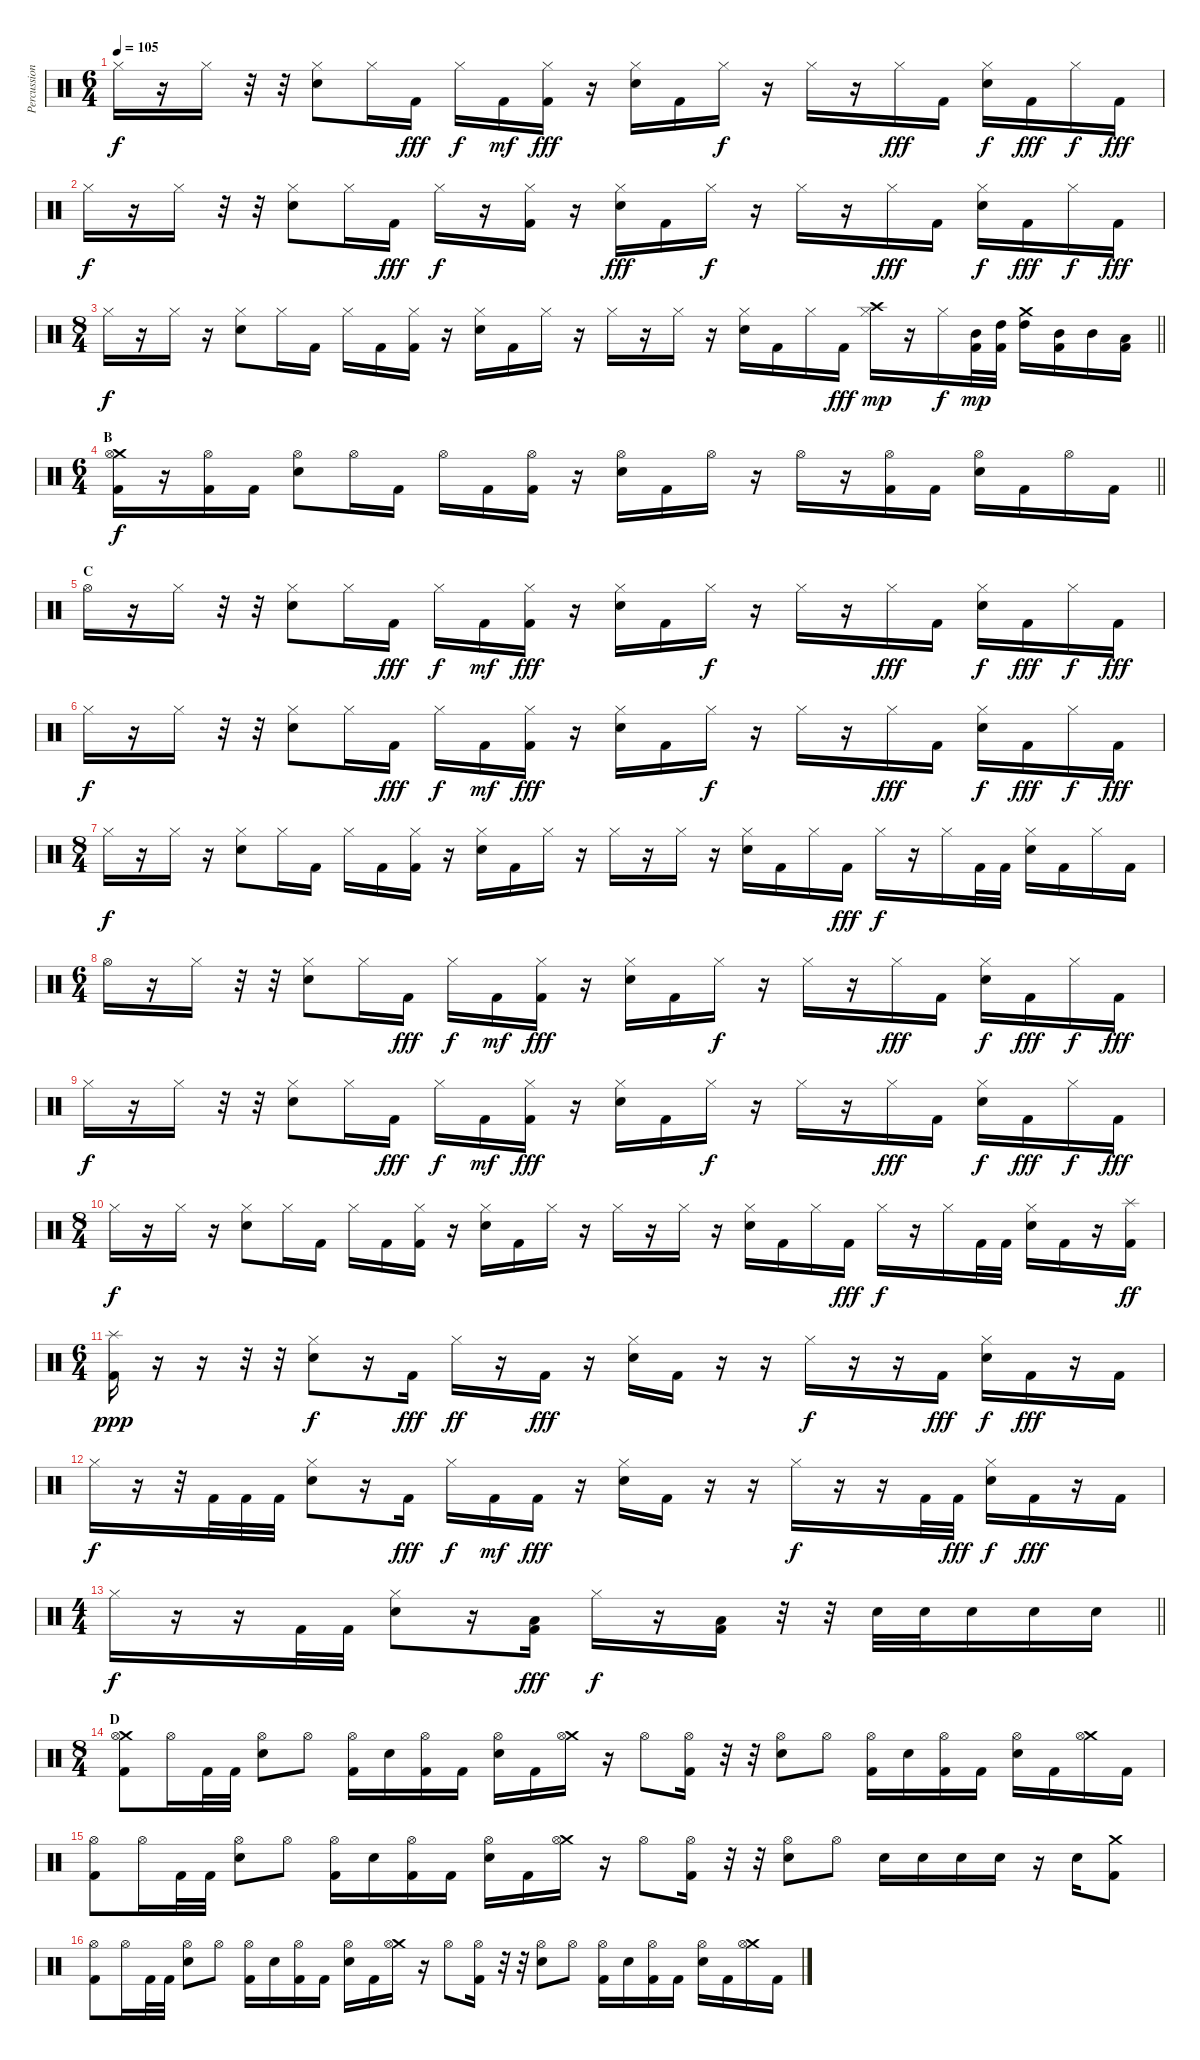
\track ("Percussions" "Percussion") {instrument percussion}
\staff {score}
\articulation defaults
\ts (6 4)
\tempo 105
\clef neutral
\ks c "Hi-Hat (closed)".16{dy f}
r.16 "Hi-Hat (closed)".16 r.32 r.32 ("Hi-Hat (closed)" "Snare (hit) 2").8 "Hi-Hat (closed)".16 "Kick (hit) 2".16{dy fff} "Hi-Hat (closed)".16{dy f} "Kick (hit) 2".16{dy mf} ("Hi-Hat (closed)" "Kick (hit) 2").16{dy fff} r.16 ("Hi-Hat (closed)" "Snare (hit) 2").16 "Kick (hit) 2".16 "Hi-Hat (closed)".16{dy f} r.16 "Hi-Hat (closed)".16 r.16 "Hi-Hat (closed)".16{dy fff} "Kick (hit) 2".16 ("Hi-Hat (closed)" "Snare (hit) 2").16{dy f} "Kick (hit) 2".16{dy fff} "Hi-Hat (closed)".16{dy f} "Kick (hit) 2".16{dy fff} |
"Hi-Hat (closed)".16{dy f} r.16 "Hi-Hat (closed)".16 r.32 r.32 ("Hi-Hat (closed)" "Snare (hit) 2").8 "Hi-Hat (closed)".16 "Kick (hit) 2".16{dy fff} "Hi-Hat (closed)".16{dy f} r.16 ("Hi-Hat (closed)" "Kick (hit) 2").16 r.16 ("Hi-Hat (closed)" "Snare (hit) 2").16{dy fff} "Kick (hit) 2".16 "Hi-Hat (closed)".16{dy f} r.16 "Hi-Hat (closed)".16 r.16 "Hi-Hat (closed)".16{dy fff} "Kick (hit) 2".16 ("Hi-Hat (closed)" "Snare (hit) 2").16{dy f} "Kick (hit) 2".16{dy fff} "Hi-Hat (closed)".16{dy f} "Kick (hit) 2".16{dy fff} |
\ts (8 4)
\barLineRight lightlight "Hi-Hat (closed)".16{dy f}
r.16 "Hi-Hat (closed)".16 r.16 ("Hi-Hat (closed)" "Snare (hit) 2").8 "Hi-Hat (closed)".16 "Kick (hit) 2".16 "Hi-Hat (closed)".16 "Kick (hit) 2".16 ("Hi-Hat (closed)" "Kick (hit) 2").16 r.16 ("Hi-Hat (closed)" "Snare (hit) 2").16 "Kick (hit) 2".16 "Hi-Hat (closed)".16 r.16 "Hi-Hat (closed)".16 r.16 "Hi-Hat (closed)".16 r.16 ("Hi-Hat (closed)" "Snare (hit) 2").16 "Kick (hit) 2".16 "Hi-Hat (closed)".16 "Kick (hit) 2".16{dy fff} ("Crash high (hit)" "Hi-Hat (closed)").16{dy mp} r.16 "Hi-Hat (closed)".16{dy f} ("Mid Tom (hit)" "Kick (hit) 2").32{dy mp} ("High Tom (hit)" "Kick (hit) 2").32 ("Crash medium (hit)" "High Tom (hit)").16 ("Mid Tom (hit)" "Kick (hit) 2").16 "Mid Tom (hit)".16 ("Low Tom (hit)" "Kick (hit) 2").16 |
\ts (6 4)
\section ("" "B")
\barLineRight lightlight
("Crash medium (hit)" "Hi-Hat (open)" "Kick (hit) 2").16{dy f} r.16 ("Hi-Hat (open)" "Kick (hit) 2").16 "Kick (hit) 2".16 ("Hi-Hat (open)" "Snare (hit) 2").8 "Hi-Hat (open)".16 "Kick (hit) 2".16 "Hi-Hat (open)".16 "Kick (hit) 2".16 ("Hi-Hat (open)" "Kick (hit) 2").16 r.16 ("Hi-Hat (open)" "Snare (hit) 2").16 "Kick (hit) 2".16 "Hi-Hat (open)".16 r.16 "Hi-Hat (open)".16 r.16 ("Hi-Hat (open)" "Kick (hit) 2").16 "Kick (hit) 2".16 ("Hi-Hat (open)" "Snare (hit) 2").16 "Kick (hit) 2".16 "Hi-Hat (open)".16 "Kick (hit) 2".16 |
\section ("" "C")
"Hi-Hat (open)".16 r.16 "Hi-Hat (closed)".16 r.32 r.32 ("Hi-Hat (closed)" "Snare (hit) 2").8 "Hi-Hat (closed)".16 "Kick (hit) 2".16{dy fff} "Hi-Hat (closed)".16{dy f} "Kick (hit) 2".16{dy mf} ("Hi-Hat (closed)" "Kick (hit) 2").16{dy fff} r.16 ("Hi-Hat (closed)" "Snare (hit) 2").16 "Kick (hit) 2".16 "Hi-Hat (closed)".16{dy f} r.16 "Hi-Hat (closed)".16 r.16 "Hi-Hat (closed)".16{dy fff} "Kick (hit) 2".16 ("Hi-Hat (closed)" "Snare (hit) 2").16{dy f} "Kick (hit) 2".16{dy fff} "Hi-Hat (closed)".16{dy f} "Kick (hit) 2".16{dy fff} |
"Hi-Hat (closed)".16{dy f} r.16 "Hi-Hat (closed)".16 r.32 r.32 ("Hi-Hat (closed)" "Snare (hit) 2").8 "Hi-Hat (closed)".16 "Kick (hit) 2".16{dy fff} "Hi-Hat (closed)".16{dy f} "Kick (hit) 2".16{dy mf} ("Hi-Hat (closed)" "Kick (hit) 2").16{dy fff} r.16 ("Hi-Hat (closed)" "Snare (hit) 2").16 "Kick (hit) 2".16 "Hi-Hat (closed)".16{dy f} r.16 "Hi-Hat (closed)".16 r.16 "Hi-Hat (closed)".16{dy fff} "Kick (hit) 2".16 ("Hi-Hat (closed)" "Snare (hit) 2").16{dy f} "Kick (hit) 2".16{dy fff} "Hi-Hat (closed)".16{dy f} "Kick (hit) 2".16{dy fff} |
\ts (8 4)
"Hi-Hat (closed)".16{dy f} r.16 "Hi-Hat (closed)".16 r.16 ("Hi-Hat (closed)" "Snare (hit) 2").8 "Hi-Hat (closed)".16 "Kick (hit) 2".16 "Hi-Hat (closed)".16 "Kick (hit) 2".16 ("Hi-Hat (closed)" "Kick (hit) 2").16 r.16 ("Hi-Hat (closed)" "Snare (hit) 2").16 "Kick (hit) 2".16 "Hi-Hat (closed)".16 r.16 "Hi-Hat (closed)".16 r.16 "Hi-Hat (closed)".16 r.16 ("Hi-Hat (closed)" "Snare (hit) 2").16 "Kick (hit) 2".16 "Hi-Hat (closed)".16 "Kick (hit) 2".16{dy fff} "Hi-Hat (closed)".16{dy f} r.16 "Hi-Hat (closed)".16 "Kick (hit) 2".32 "Kick (hit) 2".32 ("Hi-Hat (closed)" "Snare (hit) 2").16 "Kick (hit) 2".16 "Hi-Hat (closed)".16 "Kick (hit) 2".16 |
\ts (6 4)
"Hi-Hat (open)".16 r.16 "Hi-Hat (closed)".16 r.32 r.32 ("Hi-Hat (closed)" "Snare (hit) 2").8 "Hi-Hat (closed)".16 "Kick (hit) 2".16{dy fff} "Hi-Hat (closed)".16{dy f} "Kick (hit) 2".16{dy mf} ("Hi-Hat (closed)" "Kick (hit) 2").16{dy fff} r.16 ("Hi-Hat (closed)" "Snare (hit) 2").16 "Kick (hit) 2".16 "Hi-Hat (closed)".16{dy f} r.16 "Hi-Hat (closed)".16 r.16 "Hi-Hat (closed)".16{dy fff} "Kick (hit) 2".16 ("Hi-Hat (closed)" "Snare (hit) 2").16{dy f} "Kick (hit) 2".16{dy fff} "Hi-Hat (closed)".16{dy f} "Kick (hit) 2".16{dy fff} |
"Hi-Hat (closed)".16{dy f} r.16 "Hi-Hat (closed)".16 r.32 r.32 ("Hi-Hat (closed)" "Snare (hit) 2").8 "Hi-Hat (closed)".16 "Kick (hit) 2".16{dy fff} "Hi-Hat (closed)".16{dy f} "Kick (hit) 2".16{dy mf} ("Hi-Hat (closed)" "Kick (hit) 2").16{dy fff} r.16 ("Hi-Hat (closed)" "Snare (hit) 2").16 "Kick (hit) 2".16 "Hi-Hat (closed)".16{dy f} r.16 "Hi-Hat (closed)".16 r.16 "Hi-Hat (closed)".16{dy fff} "Kick (hit) 2".16 ("Hi-Hat (closed)" "Snare (hit) 2").16{dy f} "Kick (hit) 2".16{dy fff} "Hi-Hat (closed)".16{dy f} "Kick (hit) 2".16{dy fff} |
\ts (8 4)
"Hi-Hat (closed)".16{dy f} r.16 "Hi-Hat (closed)".16 r.16 ("Hi-Hat (closed)" "Snare (hit) 2").8 "Hi-Hat (closed)".16 "Kick (hit) 2".16 "Hi-Hat (closed)".16 "Kick (hit) 2".16 ("Hi-Hat (closed)" "Kick (hit) 2").16 r.16 ("Hi-Hat (closed)" "Snare (hit) 2").16 "Kick (hit) 2".16 "Hi-Hat (closed)".16 r.16 "Hi-Hat (closed)".16 r.16 "Hi-Hat (closed)".16 r.16 ("Hi-Hat (closed)" "Snare (hit) 2").16 "Kick (hit) 2".16 "Hi-Hat (closed)".16 "Kick (hit) 2".16{dy fff} "Hi-Hat (closed)".16{dy f} r.16 "Hi-Hat (closed)".16 "Kick (hit) 2".32 "Kick (hit) 2".32 ("Hi-Hat (closed)" "Snare (hit) 2").16 "Kick (hit) 2".16 r.16 ("Splash (hit)" "Kick (hit) 2").16{dy ff} |
\ts (6 4)
("Splash (hit)" "Kick (hit) 2").16{dy ppp} r.16 r.16 r.32 r.32 ("Hi-Hat (closed)" "Snare (hit) 2").8{dy f} r.16 "Kick (hit) 2".16{dy fff} "Hi-Hat (closed)".16{dy ff} r.16 "Kick (hit) 2".16{dy fff} r.16 ("Hi-Hat (closed)" "Snare (hit) 2").16 "Kick (hit) 2".16 r.16 r.16 "Hi-Hat (closed)".16{dy f} r.16 r.16 "Kick (hit) 2".16{dy fff} ("Hi-Hat (closed)" "Snare (hit) 2").16{dy f} "Kick (hit) 2".16{dy fff} r.16 "Kick (hit) 2".16 |
"Hi-Hat (closed)".16{dy f} r.16 r.32 "Kick (hit) 2".32 "Kick (hit) 2".32 "Kick (hit) 2".32 ("Hi-Hat (closed)" "Snare (hit) 2").8 r.16 "Kick (hit) 2".16{dy fff} "Hi-Hat (closed)".16{dy f} "Kick (hit) 2".16{dy mf} "Kick (hit) 2".16{dy fff} r.16 ("Hi-Hat (closed)" "Snare (hit) 2").16 "Kick (hit) 2".16 r.16 r.16 "Hi-Hat (closed)".16{dy f} r.16 r.16 "Kick (hit) 2".32 "Kick (hit) 2".32{dy fff} ("Hi-Hat (closed)" "Snare (hit) 2").16{dy f} "Kick (hit) 2".16{dy fff} r.16 "Kick (hit) 2".16 |
\ts (4 4)
\barLineRight lightlight "Hi-Hat (closed)".16{dy f}
r.16 r.16 "Kick (hit) 2".32 "Kick (hit) 2".32 ("Hi-Hat (closed)" "Snare (hit) 2").8 r.16 ("Low Tom (hit)" "Kick (hit) 2").16{dy fff} "Hi-Hat (closed)".16{dy f} r.16 ("Low Tom (hit)" "Kick (hit) 2").16 r.32 r.32 "Snare (hit) 2".32 "Snare (hit) 2".32 "Snare (hit) 2".16 "Snare (hit) 2".16 "Snare (hit) 2".16 |
\ts (8 4)
\section ("" "D")
("Crash medium (hit)" "Hi-Hat (open)" "Kick (hit) 2").8 "Hi-Hat (open)".16 "Kick (hit) 2".32 "Kick (hit) 2".32 ("Hi-Hat (open)" "Snare (hit) 2").8 "Hi-Hat (open)".8 ("Hi-Hat (open)" "Kick (hit) 2").16 "Snare (hit) 2".16 ("Hi-Hat (open)" "Kick (hit) 2").16 "Kick (hit) 2".16 ("Hi-Hat (open)" "Snare (hit) 2").16 "Kick (hit) 2".16 ("Crash medium (hit)" "Hi-Hat (open)").16 r.16 "Hi-Hat (open)".8 ("Hi-Hat (open)" "Kick (hit) 2").16 r.32 r.32 ("Hi-Hat (open)" "Snare (hit) 2").8 "Hi-Hat (open)".8 ("Hi-Hat (open)" "Kick (hit) 2").16 "Snare (hit) 2".16 ("Hi-Hat (open)" "Kick (hit) 2").16 "Kick (hit) 2".16 ("Hi-Hat (open)" "Snare (hit) 2").16 "Kick (hit) 2".16 ("Crash medium (hit)" "Hi-Hat (open)").16 "Kick (hit) 2".16 |
("Hi-Hat (open)" "Kick (hit) 2").8 "Hi-Hat (open)".16 "Kick (hit) 2".32 "Kick (hit) 2".32 ("Hi-Hat (open)" "Snare (hit) 2").8 "Hi-Hat (open)".8 ("Hi-Hat (open)" "Kick (hit) 2").16 "Snare (hit) 2".16 ("Hi-Hat (open)" "Kick (hit) 2").16 "Kick (hit) 2".16 ("Hi-Hat (open)" "Snare (hit) 2").16 "Kick (hit) 2".16 ("Crash medium (hit)" "Hi-Hat (open)").16 r.16 "Hi-Hat (open)".8 ("Hi-Hat (open)" "Kick (hit) 2").16 r.32 r.32 ("Hi-Hat (open)" "Snare (hit) 2").8 "Hi-Hat (open)".8 "Snare (hit) 2".16 "Snare (hit) 2".16 "Snare (hit) 2".16 "Snare (hit) 2".16 r.16 "Snare (hit) 2".16 ("Crash medium (hit)" "Kick (hit) 2").8 |
("Hi-Hat (open)" "Kick (hit) 2").8 "Hi-Hat (open)".16 "Kick (hit) 2".32 "Kick (hit) 2".32 ("Hi-Hat (open)" "Snare (hit) 2").8 "Hi-Hat (open)".8 ("Hi-Hat (open)" "Kick (hit) 2").16 "Snare (hit) 2".16 ("Hi-Hat (open)" "Kick (hit) 2").16 "Kick (hit) 2".16 ("Hi-Hat (open)" "Snare (hit) 2").16 "Kick (hit) 2".16 ("Crash medium (hit)" "Hi-Hat (open)").16 r.16 "Hi-Hat (open)".8 ("Hi-Hat (open)" "Kick (hit) 2").16 r.32 r.32 ("Hi-Hat (open)" "Snare (hit) 2").8 "Hi-Hat (open)".8 ("Hi-Hat (open)" "Kick (hit) 2").16 "Snare (hit) 2".16 ("Hi-Hat (open)" "Kick (hit) 2").16 "Kick (hit) 2".16 ("Hi-Hat (open)" "Snare (hit) 2").16 "Kick (hit) 2".16 ("Crash medium (hit)" "Hi-Hat (open)").16 "Kick (hit) 2".16
